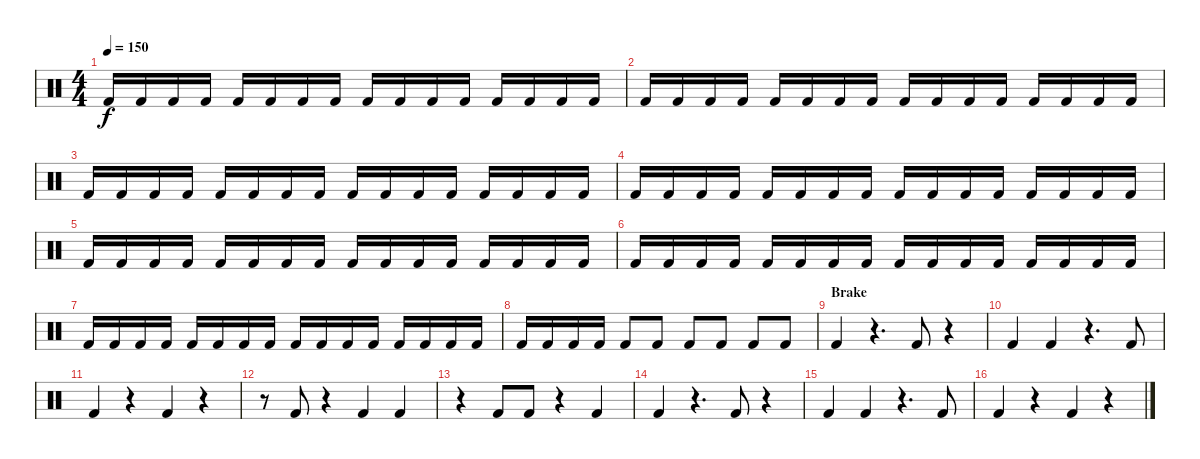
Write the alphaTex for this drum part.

\track "" {instrument percussion}
\staff {score}
\articulation defaults
\ts (4 4)
\tempo 150
\clef neutral
\ks c "Kick (hit) 2".16{dy f} "Kick (hit) 2".16 "Kick (hit) 2".16 "Kick (hit) 2".16 "Kick (hit) 2".16 "Kick (hit) 2".16 "Kick (hit) 2".16 "Kick (hit) 2".16 "Kick (hit) 2".16 "Kick (hit) 2".16 "Kick (hit) 2".16 "Kick (hit) 2".16 "Kick (hit) 2".16 "Kick (hit) 2".16 "Kick (hit) 2".16 "Kick (hit) 2".16
|
"Kick (hit) 2".16 "Kick (hit) 2".16 "Kick (hit) 2".16 "Kick (hit) 2".16 "Kick (hit) 2".16 "Kick (hit) 2".16 "Kick (hit) 2".16 "Kick (hit) 2".16 "Kick (hit) 2".16 "Kick (hit) 2".16 "Kick (hit) 2".16 "Kick (hit) 2".16 "Kick (hit) 2".16 "Kick (hit) 2".16 "Kick (hit) 2".16 "Kick (hit) 2".16 |
"Kick (hit) 2".16 "Kick (hit) 2".16 "Kick (hit) 2".16 "Kick (hit) 2".16 "Kick (hit) 2".16 "Kick (hit) 2".16 "Kick (hit) 2".16 "Kick (hit) 2".16 "Kick (hit) 2".16 "Kick (hit) 2".16 "Kick (hit) 2".16 "Kick (hit) 2".16 "Kick (hit) 2".16 "Kick (hit) 2".16 "Kick (hit) 2".16 "Kick (hit) 2".16 |
"Kick (hit) 2".16 "Kick (hit) 2".16 "Kick (hit) 2".16 "Kick (hit) 2".16 "Kick (hit) 2".16 "Kick (hit) 2".16 "Kick (hit) 2".16 "Kick (hit) 2".16 "Kick (hit) 2".16 "Kick (hit) 2".16 "Kick (hit) 2".16 "Kick (hit) 2".16 "Kick (hit) 2".16 "Kick (hit) 2".16 "Kick (hit) 2".16 "Kick (hit) 2".16 |
"Kick (hit) 2".16 "Kick (hit) 2".16 "Kick (hit) 2".16 "Kick (hit) 2".16 "Kick (hit) 2".16 "Kick (hit) 2".16 "Kick (hit) 2".16 "Kick (hit) 2".16 "Kick (hit) 2".16 "Kick (hit) 2".16 "Kick (hit) 2".16 "Kick (hit) 2".16 "Kick (hit) 2".16 "Kick (hit) 2".16 "Kick (hit) 2".16 "Kick (hit) 2".16 |
"Kick (hit) 2".16 "Kick (hit) 2".16 "Kick (hit) 2".16 "Kick (hit) 2".16 "Kick (hit) 2".16 "Kick (hit) 2".16 "Kick (hit) 2".16 "Kick (hit) 2".16 "Kick (hit) 2".16 "Kick (hit) 2".16 "Kick (hit) 2".16 "Kick (hit) 2".16 "Kick (hit) 2".16 "Kick (hit) 2".16 "Kick (hit) 2".16 "Kick (hit) 2".16 |
"Kick (hit) 2".16 "Kick (hit) 2".16 "Kick (hit) 2".16 "Kick (hit) 2".16 "Kick (hit) 2".16 "Kick (hit) 2".16 "Kick (hit) 2".16 "Kick (hit) 2".16 "Kick (hit) 2".16 "Kick (hit) 2".16 "Kick (hit) 2".16 "Kick (hit) 2".16 "Kick (hit) 2".16 "Kick (hit) 2".16 "Kick (hit) 2".16 "Kick (hit) 2".16 |
"Kick (hit) 2".16 "Kick (hit) 2".16 "Kick (hit) 2".16 "Kick (hit) 2".16 "Kick (hit) 2".8 "Kick (hit) 2".8 "Kick (hit) 2".8 "Kick (hit) 2".8 "Kick (hit) 2".8 "Kick (hit) 2".8 |
\section ("" "Brake")
"Kick (hit) 2".4 r.4{d} "Kick (hit) 2".8 r.4 |
"Kick (hit) 2".4 "Kick (hit) 2".4 r.4{d} "Kick (hit) 2".8 |
"Kick (hit) 2".4 r.4 "Kick (hit) 2".4 r.4 |
r.8 "Kick (hit) 2".8 r.4 "Kick (hit) 2".4 "Kick (hit) 2".4 |
r.4 "Kick (hit) 2".8 "Kick (hit) 2".8 r.4 "Kick (hit) 2".4 |
"Kick (hit) 2".4 r.4{d} "Kick (hit) 2".8 r.4 |
"Kick (hit) 2".4 "Kick (hit) 2".4 r.4{d} "Kick (hit) 2".8 |
"Kick (hit) 2".4 r.4 "Kick (hit) 2".4 r.4
